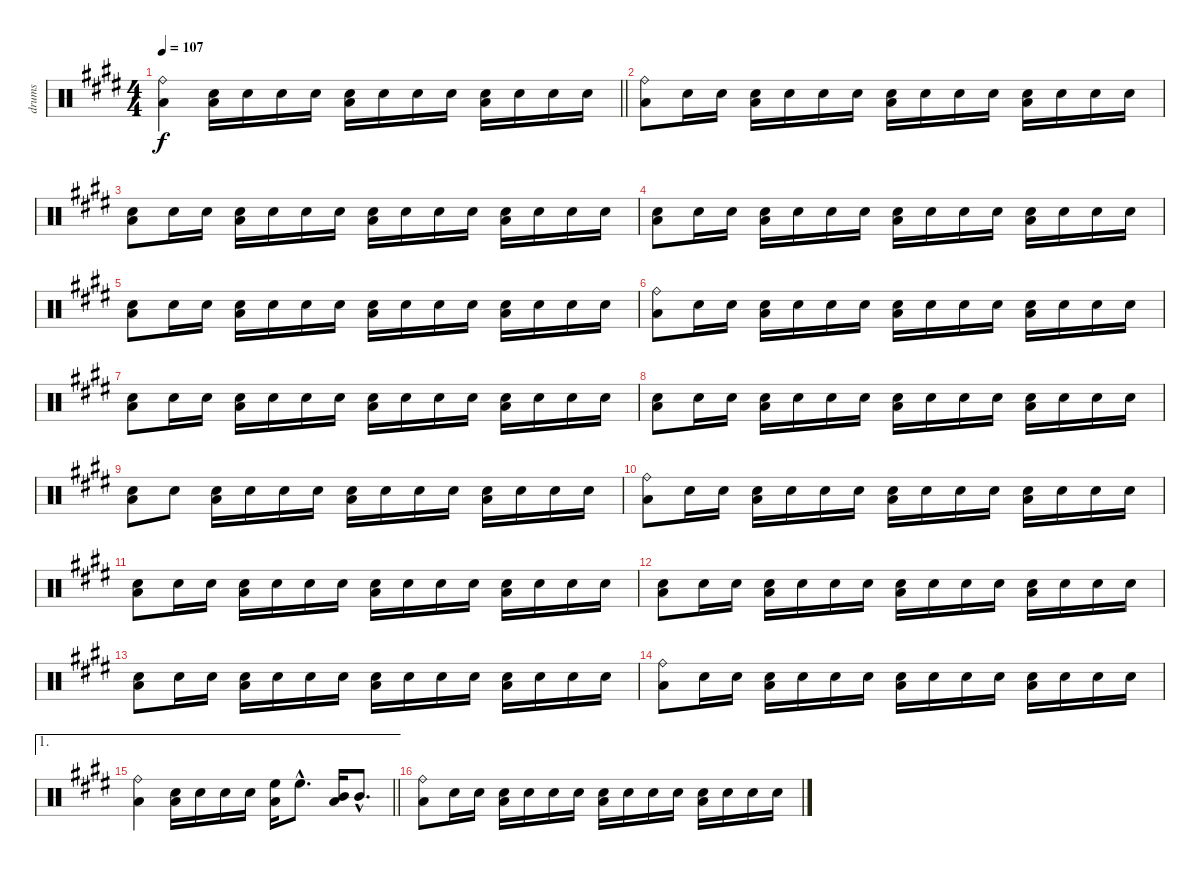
\track ("drums" "drums") {instrument percussion}
\staff {score}
\articulation defaults
\ts (4 4)
\tempo 107
\clef neutral
\barLineRight lightlight
\ks e
("Ride (bell)" "Low Floor Tom (hit)").4{dy f} ("Electric Snare (hit)" "Low Floor Tom (hit)").16 "Electric Snare (hit)".16 "Electric Snare (hit)".16 "Electric Snare (hit)".16 ("Electric Snare (hit)" "Low Floor Tom (hit)").16 "Electric Snare (hit)".16 "Electric Snare (hit)".16 "Electric Snare (hit)".16 ("Electric Snare (hit)" "Low Floor Tom (hit)").16 "Electric Snare (hit)".16 "Electric Snare (hit)".16 "Electric Snare (hit)".16 |
("Ride (bell)" "Low Floor Tom (hit)").8 "Electric Snare (hit)".16 "Electric Snare (hit)".16 ("Electric Snare (hit)" "Low Floor Tom (hit)").16 "Electric Snare (hit)".16 "Electric Snare (hit)".16 "Electric Snare (hit)".16 ("Electric Snare (hit)" "Low Floor Tom (hit)").16 "Electric Snare (hit)".16 "Electric Snare (hit)".16 "Electric Snare (hit)".16 ("Electric Snare (hit)" "Low Floor Tom (hit)").16 "Electric Snare (hit)".16 "Electric Snare (hit)".16 "Electric Snare (hit)".16 |
("Electric Snare (hit)" "Low Floor Tom (hit)").8 "Electric Snare (hit)".16 "Electric Snare (hit)".16 ("Electric Snare (hit)" "Low Floor Tom (hit)").16 "Electric Snare (hit)".16 "Electric Snare (hit)".16 "Electric Snare (hit)".16 ("Electric Snare (hit)" "Low Floor Tom (hit)").16 "Electric Snare (hit)".16 "Electric Snare (hit)".16 "Electric Snare (hit)".16 ("Electric Snare (hit)" "Low Floor Tom (hit)").16 "Electric Snare (hit)".16 "Electric Snare (hit)".16 "Electric Snare (hit)".16 |
("Electric Snare (hit)" "Low Floor Tom (hit)").8 "Electric Snare (hit)".16 "Electric Snare (hit)".16 ("Electric Snare (hit)" "Low Floor Tom (hit)").16 "Electric Snare (hit)".16 "Electric Snare (hit)".16 "Electric Snare (hit)".16 ("Electric Snare (hit)" "Low Floor Tom (hit)").16 "Electric Snare (hit)".16 "Electric Snare (hit)".16 "Electric Snare (hit)".16 ("Electric Snare (hit)" "Low Floor Tom (hit)").16 "Electric Snare (hit)".16 "Electric Snare (hit)".16 "Electric Snare (hit)".16 |
("Electric Snare (hit)" "Low Floor Tom (hit)").8 "Electric Snare (hit)".16 "Electric Snare (hit)".16 ("Electric Snare (hit)" "Low Floor Tom (hit)").16 "Electric Snare (hit)".16 "Electric Snare (hit)".16 "Electric Snare (hit)".16 ("Electric Snare (hit)" "Low Floor Tom (hit)").16 "Electric Snare (hit)".16 "Electric Snare (hit)".16 "Electric Snare (hit)".16 ("Electric Snare (hit)" "Low Floor Tom (hit)").16 "Electric Snare (hit)".16 "Electric Snare (hit)".16 "Electric Snare (hit)".16 |
("Ride (bell)" "Low Floor Tom (hit)").8 "Electric Snare (hit)".16 "Electric Snare (hit)".16 ("Electric Snare (hit)" "Low Floor Tom (hit)").16 "Electric Snare (hit)".16 "Electric Snare (hit)".16 "Electric Snare (hit)".16 ("Electric Snare (hit)" "Low Floor Tom (hit)").16 "Electric Snare (hit)".16 "Electric Snare (hit)".16 "Electric Snare (hit)".16 ("Electric Snare (hit)" "Low Floor Tom (hit)").16 "Electric Snare (hit)".16 "Electric Snare (hit)".16 "Electric Snare (hit)".16 |
("Electric Snare (hit)" "Low Floor Tom (hit)").8 "Electric Snare (hit)".16 "Electric Snare (hit)".16 ("Electric Snare (hit)" "Low Floor Tom (hit)").16 "Electric Snare (hit)".16 "Electric Snare (hit)".16 "Electric Snare (hit)".16 ("Electric Snare (hit)" "Low Floor Tom (hit)").16 "Electric Snare (hit)".16 "Electric Snare (hit)".16 "Electric Snare (hit)".16 ("Electric Snare (hit)" "Low Floor Tom (hit)").16 "Electric Snare (hit)".16 "Electric Snare (hit)".16 "Electric Snare (hit)".16 |
("Electric Snare (hit)" "Low Floor Tom (hit)").8 "Electric Snare (hit)".16 "Electric Snare (hit)".16 ("Electric Snare (hit)" "Low Floor Tom (hit)").16 "Electric Snare (hit)".16 "Electric Snare (hit)".16 "Electric Snare (hit)".16 ("Electric Snare (hit)" "Low Floor Tom (hit)").16 "Electric Snare (hit)".16 "Electric Snare (hit)".16 "Electric Snare (hit)".16 ("Electric Snare (hit)" "Low Floor Tom (hit)").16 "Electric Snare (hit)".16 "Electric Snare (hit)".16 "Electric Snare (hit)".16 |
("Electric Snare (hit)" "Low Floor Tom (hit)").8 "Electric Snare (hit)".8 ("Electric Snare (hit)" "Low Floor Tom (hit)").16 "Electric Snare (hit)".16 "Electric Snare (hit)".16 "Electric Snare (hit)".16 ("Electric Snare (hit)" "Low Floor Tom (hit)").16 "Electric Snare (hit)".16 "Electric Snare (hit)".16 "Electric Snare (hit)".16 ("Electric Snare (hit)" "Low Floor Tom (hit)").16 "Electric Snare (hit)".16 "Electric Snare (hit)".16 "Electric Snare (hit)".16 |
("Ride (bell)" "Low Floor Tom (hit)").8 "Electric Snare (hit)".16 "Electric Snare (hit)".16 ("Electric Snare (hit)" "Low Floor Tom (hit)").16 "Electric Snare (hit)".16 "Electric Snare (hit)".16 "Electric Snare (hit)".16 ("Electric Snare (hit)" "Low Floor Tom (hit)").16 "Electric Snare (hit)".16 "Electric Snare (hit)".16 "Electric Snare (hit)".16 ("Electric Snare (hit)" "Low Floor Tom (hit)").16 "Electric Snare (hit)".16 "Electric Snare (hit)".16 "Electric Snare (hit)".16 |
("Electric Snare (hit)" "Low Floor Tom (hit)").8 "Electric Snare (hit)".16 "Electric Snare (hit)".16 ("Electric Snare (hit)" "Low Floor Tom (hit)").16 "Electric Snare (hit)".16 "Electric Snare (hit)".16 "Electric Snare (hit)".16 ("Electric Snare (hit)" "Low Floor Tom (hit)").16 "Electric Snare (hit)".16 "Electric Snare (hit)".16 "Electric Snare (hit)".16 ("Electric Snare (hit)" "Low Floor Tom (hit)").16 "Electric Snare (hit)".16 "Electric Snare (hit)".16 "Electric Snare (hit)".16 |
("Electric Snare (hit)" "Low Floor Tom (hit)").8 "Electric Snare (hit)".16 "Electric Snare (hit)".16 ("Electric Snare (hit)" "Low Floor Tom (hit)").16 "Electric Snare (hit)".16 "Electric Snare (hit)".16 "Electric Snare (hit)".16 ("Electric Snare (hit)" "Low Floor Tom (hit)").16 "Electric Snare (hit)".16 "Electric Snare (hit)".16 "Electric Snare (hit)".16 ("Electric Snare (hit)" "Low Floor Tom (hit)").16 "Electric Snare (hit)".16 "Electric Snare (hit)".16 "Electric Snare (hit)".16 |
("Electric Snare (hit)" "Low Floor Tom (hit)").8 "Electric Snare (hit)".16 "Electric Snare (hit)".16 ("Electric Snare (hit)" "Low Floor Tom (hit)").16 "Electric Snare (hit)".16 "Electric Snare (hit)".16 "Electric Snare (hit)".16 ("Electric Snare (hit)" "Low Floor Tom (hit)").16 "Electric Snare (hit)".16 "Electric Snare (hit)".16 "Electric Snare (hit)".16 ("Electric Snare (hit)" "Low Floor Tom (hit)").16 "Electric Snare (hit)".16 "Electric Snare (hit)".16 "Electric Snare (hit)".16 |
("Ride (bell)" "Low Floor Tom (hit)").8 "Electric Snare (hit)".16 "Electric Snare (hit)".16 ("Electric Snare (hit)" "Low Floor Tom (hit)").16 "Electric Snare (hit)".16 "Electric Snare (hit)".16 "Electric Snare (hit)".16 ("Electric Snare (hit)" "Low Floor Tom (hit)").16 "Electric Snare (hit)".16 "Electric Snare (hit)".16 "Electric Snare (hit)".16 ("Electric Snare (hit)" "Low Floor Tom (hit)").16 "Electric Snare (hit)".16 "Electric Snare (hit)".16 "Electric Snare (hit)".16 |
\ae 1
\barLineRight lightlight
("Ride (bell)" "Low Floor Tom (hit)").4 ("Electric Snare (hit)" "Low Floor Tom (hit)").16 "Electric Snare (hit)".16 "Electric Snare (hit)".16 "Electric Snare (hit)".16 ("High Floor Tom (hit)" "Low Floor Tom (hit)").16 "High Floor Tom (hit)"{hac}.8{d} ("Mid Tom (hit)" "Low Floor Tom (hit)").16 "Mid Tom (hit)"{hac}.8{d} |
("Ride (bell)" "Low Floor Tom (hit)").8 "Electric Snare (hit)".16 "Electric Snare (hit)".16 ("Electric Snare (hit)" "Low Floor Tom (hit)").16 "Electric Snare (hit)".16 "Electric Snare (hit)".16 "Electric Snare (hit)".16 ("Electric Snare (hit)" "Low Floor Tom (hit)").16 "Electric Snare (hit)".16 "Electric Snare (hit)".16 "Electric Snare (hit)".16 ("Electric Snare (hit)" "Low Floor Tom (hit)").16 "Electric Snare (hit)".16 "Electric Snare (hit)".16 "Electric Snare (hit)".16
